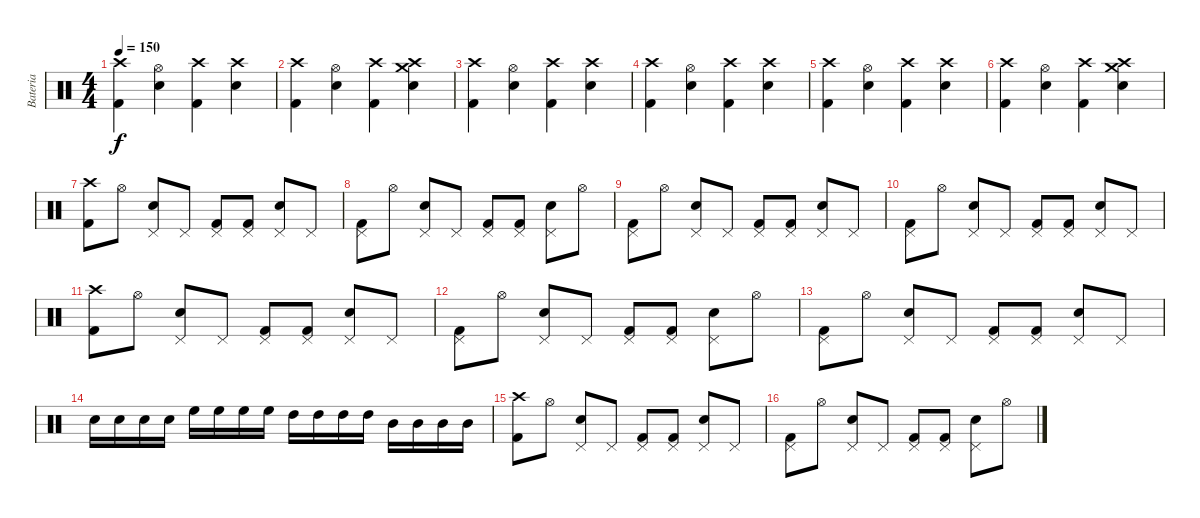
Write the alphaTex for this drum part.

\track ("Bateria" "Bateria") {instrument percussion}
\staff {score}
\articulation defaults
\ts (4 4)
\tempo 150
\clef neutral
\ks c
("Kick (hit) 2" "Crash high (hit)").4{dy f} ("Snare (hit) 2" "Hi-Hat (open)").4 ("Kick (hit) 2" "Crash high (hit)").4 ("Snare (hit) 2" "Crash high (hit)").4 |
("Kick (hit) 2" "Crash high (hit)").4 ("Snare (hit) 2" "Hi-Hat (open)").4 ("Kick (hit) 2" "Crash high (hit)").4 ("Crash medium (hit)" "Snare (hit) 2" "Crash high (hit)").4 |
("Kick (hit) 2" "Crash high (hit)").4 ("Snare (hit) 2" "Hi-Hat (open)").4 ("Kick (hit) 2" "Crash high (hit)").4 ("Snare (hit) 2" "Crash high (hit)").4 |
("Kick (hit) 2" "Crash high (hit)").4 ("Snare (hit) 2" "Hi-Hat (open)").4 ("Kick (hit) 2" "Crash high (hit)").4 ("Snare (hit) 2" "Crash high (hit)").4 |
("Kick (hit) 2" "Crash high (hit)").4 ("Snare (hit) 2" "Hi-Hat (open)").4 ("Kick (hit) 2" "Crash high (hit)").4 ("Snare (hit) 2" "Crash high (hit)").4 |
("Kick (hit) 2" "Crash high (hit)").4 ("Snare (hit) 2" "Hi-Hat (open)").4 ("Kick (hit) 2" "Crash high (hit)").4 ("Crash medium (hit)" "Snare (hit) 2" "Crash high (hit)").4 |
("Crash high (hit)" "Kick (hit) 2").8 "Hi-Hat (open)".8 ("Pedal Hi-Hat (hit)" "Snare (hit) 2").8 "Pedal Hi-Hat (hit)".8 ("Pedal Hi-Hat (hit)" "Kick (hit) 2").8 ("Pedal Hi-Hat (hit)" "Kick (hit) 2").8 ("Pedal Hi-Hat (hit)" "Snare (hit) 2").8 "Pedal Hi-Hat (hit)".8 |
("Pedal Hi-Hat (hit)" "Kick (hit) 2").8 "Hi-Hat (open)".8 ("Pedal Hi-Hat (hit)" "Snare (hit) 2").8 "Pedal Hi-Hat (hit)".8 ("Pedal Hi-Hat (hit)" "Kick (hit) 2").8 ("Pedal Hi-Hat (hit)" "Kick (hit) 2").8 ("Pedal Hi-Hat (hit)" "Snare (hit) 2").8 "Hi-Hat (open)".8 |
("Pedal Hi-Hat (hit)" "Kick (hit) 2").8 "Hi-Hat (open)".8 ("Pedal Hi-Hat (hit)" "Snare (hit) 2").8 "Pedal Hi-Hat (hit)".8 ("Pedal Hi-Hat (hit)" "Kick (hit) 2").8 ("Pedal Hi-Hat (hit)" "Kick (hit) 2").8 ("Pedal Hi-Hat (hit)" "Snare (hit) 2").8 "Pedal Hi-Hat (hit)".8 |
("Pedal Hi-Hat (hit)" "Kick (hit) 2").8 "Hi-Hat (open)".8 ("Pedal Hi-Hat (hit)" "Snare (hit) 2").8 "Pedal Hi-Hat (hit)".8 ("Pedal Hi-Hat (hit)" "Kick (hit) 2").8 ("Pedal Hi-Hat (hit)" "Kick (hit) 2").8 ("Pedal Hi-Hat (hit)" "Snare (hit) 2").8 "Pedal Hi-Hat (hit)".8 |
("Crash high (hit)" "Kick (hit) 2").8 "Hi-Hat (open)".8 ("Pedal Hi-Hat (hit)" "Snare (hit) 2").8 "Pedal Hi-Hat (hit)".8 ("Pedal Hi-Hat (hit)" "Kick (hit) 2").8 ("Pedal Hi-Hat (hit)" "Kick (hit) 2").8 ("Pedal Hi-Hat (hit)" "Snare (hit) 2").8 "Pedal Hi-Hat (hit)".8 |
("Pedal Hi-Hat (hit)" "Kick (hit) 2").8 "Hi-Hat (open)".8 ("Pedal Hi-Hat (hit)" "Snare (hit) 2").8 "Pedal Hi-Hat (hit)".8 ("Pedal Hi-Hat (hit)" "Kick (hit) 2").8 ("Pedal Hi-Hat (hit)" "Kick (hit) 2").8 ("Pedal Hi-Hat (hit)" "Snare (hit) 2").8 "Hi-Hat (open)".8 |
("Pedal Hi-Hat (hit)" "Kick (hit) 2").8 "Hi-Hat (open)".8 ("Pedal Hi-Hat (hit)" "Snare (hit) 2").8 "Pedal Hi-Hat (hit)".8 ("Pedal Hi-Hat (hit)" "Kick (hit) 2").8 ("Pedal Hi-Hat (hit)" "Kick (hit) 2").8 ("Pedal Hi-Hat (hit)" "Snare (hit) 2").8 "Pedal Hi-Hat (hit)".8 |
"Snare (hit) 2".16 "Snare (hit) 2".16 "Snare (hit) 2".16 "Snare (hit) 2".16 "High Floor Tom (hit)".16 "High Floor Tom (hit)".16 "High Floor Tom (hit)".16 "High Floor Tom (hit)".16 "High Tom (hit)".16 "High Tom (hit)".16 "High Tom (hit)".16 "High Tom (hit)".16 "Mid Tom (hit)".16 "Mid Tom (hit)".16 "Mid Tom (hit)".16 "Mid Tom (hit)".16 |
("Crash high (hit)" "Kick (hit) 2").8 "Hi-Hat (open)".8 ("Pedal Hi-Hat (hit)" "Snare (hit) 2").8 "Pedal Hi-Hat (hit)".8 ("Pedal Hi-Hat (hit)" "Kick (hit) 2").8 ("Pedal Hi-Hat (hit)" "Kick (hit) 2").8 ("Pedal Hi-Hat (hit)" "Snare (hit) 2").8 "Pedal Hi-Hat (hit)".8 |
("Pedal Hi-Hat (hit)" "Kick (hit) 2").8 "Hi-Hat (open)".8 ("Pedal Hi-Hat (hit)" "Snare (hit) 2").8 "Pedal Hi-Hat (hit)".8 ("Pedal Hi-Hat (hit)" "Kick (hit) 2").8 ("Pedal Hi-Hat (hit)" "Kick (hit) 2").8 ("Pedal Hi-Hat (hit)" "Snare (hit) 2").8 "Hi-Hat (open)".8
